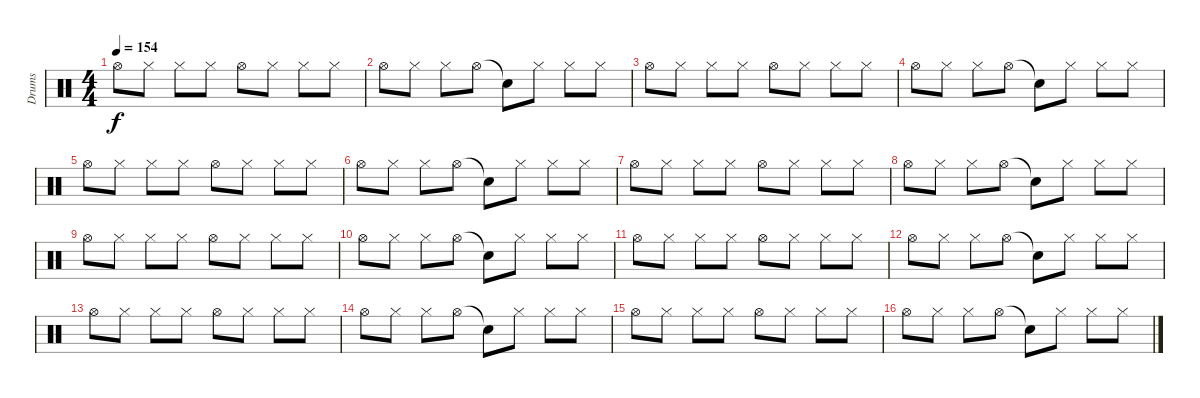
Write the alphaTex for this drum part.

\track ("Drums" "Drums") {instrument percussion}
\staff {score}
\articulation defaults
\ts (4 4)
\tempo 154
\clef neutral
\ks c "Hi-Hat (open)".8{dy f} "Hi-Hat (closed)".8 "Hi-Hat (closed)".8 "Hi-Hat (closed)".8 "Hi-Hat (open)".8 "Hi-Hat (closed)".8 "Hi-Hat (closed)".8 "Hi-Hat (closed)".8
|
"Hi-Hat (open)".8 "Hi-Hat (closed)".8 "Hi-Hat (closed)".8 "Hi-Hat (open)".8 "Snare (hit)"{t}.8 "Hi-Hat (closed)".8 "Hi-Hat (closed)".8 "Hi-Hat (closed)".8 |
"Hi-Hat (open)".8 "Hi-Hat (closed)".8 "Hi-Hat (closed)".8 "Hi-Hat (closed)".8 "Hi-Hat (open)".8 "Hi-Hat (closed)".8 "Hi-Hat (closed)".8 "Hi-Hat (closed)".8 |
"Hi-Hat (open)".8 "Hi-Hat (closed)".8 "Hi-Hat (closed)".8 "Hi-Hat (open)".8 "Snare (hit)"{t}.8 "Hi-Hat (closed)".8 "Hi-Hat (closed)".8 "Hi-Hat (closed)".8 |
"Hi-Hat (open)".8 "Hi-Hat (closed)".8 "Hi-Hat (closed)".8 "Hi-Hat (closed)".8 "Hi-Hat (open)".8 "Hi-Hat (closed)".8 "Hi-Hat (closed)".8 "Hi-Hat (closed)".8 |
"Hi-Hat (open)".8 "Hi-Hat (closed)".8 "Hi-Hat (closed)".8 "Hi-Hat (open)".8 "Snare (hit)"{t}.8 "Hi-Hat (closed)".8 "Hi-Hat (closed)".8 "Hi-Hat (closed)".8 |
"Hi-Hat (open)".8 "Hi-Hat (closed)".8 "Hi-Hat (closed)".8 "Hi-Hat (closed)".8 "Hi-Hat (open)".8 "Hi-Hat (closed)".8 "Hi-Hat (closed)".8 "Hi-Hat (closed)".8 |
"Hi-Hat (open)".8 "Hi-Hat (closed)".8 "Hi-Hat (closed)".8 "Hi-Hat (open)".8 "Snare (hit)"{t}.8 "Hi-Hat (closed)".8 "Hi-Hat (closed)".8 "Hi-Hat (closed)".8 |
"Hi-Hat (open)".8 "Hi-Hat (closed)".8 "Hi-Hat (closed)".8 "Hi-Hat (closed)".8 "Hi-Hat (open)".8 "Hi-Hat (closed)".8 "Hi-Hat (closed)".8 "Hi-Hat (closed)".8 |
"Hi-Hat (open)".8 "Hi-Hat (closed)".8 "Hi-Hat (closed)".8 "Hi-Hat (open)".8 "Snare (hit)"{t}.8 "Hi-Hat (closed)".8 "Hi-Hat (closed)".8 "Hi-Hat (closed)".8 |
"Hi-Hat (open)".8 "Hi-Hat (closed)".8 "Hi-Hat (closed)".8 "Hi-Hat (closed)".8 "Hi-Hat (open)".8 "Hi-Hat (closed)".8 "Hi-Hat (closed)".8 "Hi-Hat (closed)".8 |
"Hi-Hat (open)".8 "Hi-Hat (closed)".8 "Hi-Hat (closed)".8 "Hi-Hat (open)".8 "Snare (hit)"{t}.8 "Hi-Hat (closed)".8 "Hi-Hat (closed)".8 "Hi-Hat (closed)".8 |
"Hi-Hat (open)".8 "Hi-Hat (closed)".8 "Hi-Hat (closed)".8 "Hi-Hat (closed)".8 "Hi-Hat (open)".8 "Hi-Hat (closed)".8 "Hi-Hat (closed)".8 "Hi-Hat (closed)".8 |
"Hi-Hat (open)".8 "Hi-Hat (closed)".8 "Hi-Hat (closed)".8 "Hi-Hat (open)".8 "Snare (hit)"{t}.8 "Hi-Hat (closed)".8 "Hi-Hat (closed)".8 "Hi-Hat (closed)".8 |
"Hi-Hat (open)".8 "Hi-Hat (closed)".8 "Hi-Hat (closed)".8 "Hi-Hat (closed)".8 "Hi-Hat (open)".8 "Hi-Hat (closed)".8 "Hi-Hat (closed)".8 "Hi-Hat (closed)".8 |
"Hi-Hat (open)".8 "Hi-Hat (closed)".8 "Hi-Hat (closed)".8 "Hi-Hat (open)".8 "Snare (hit)"{t}.8 "Hi-Hat (closed)".8 "Hi-Hat (closed)".8 "Hi-Hat (closed)".8
